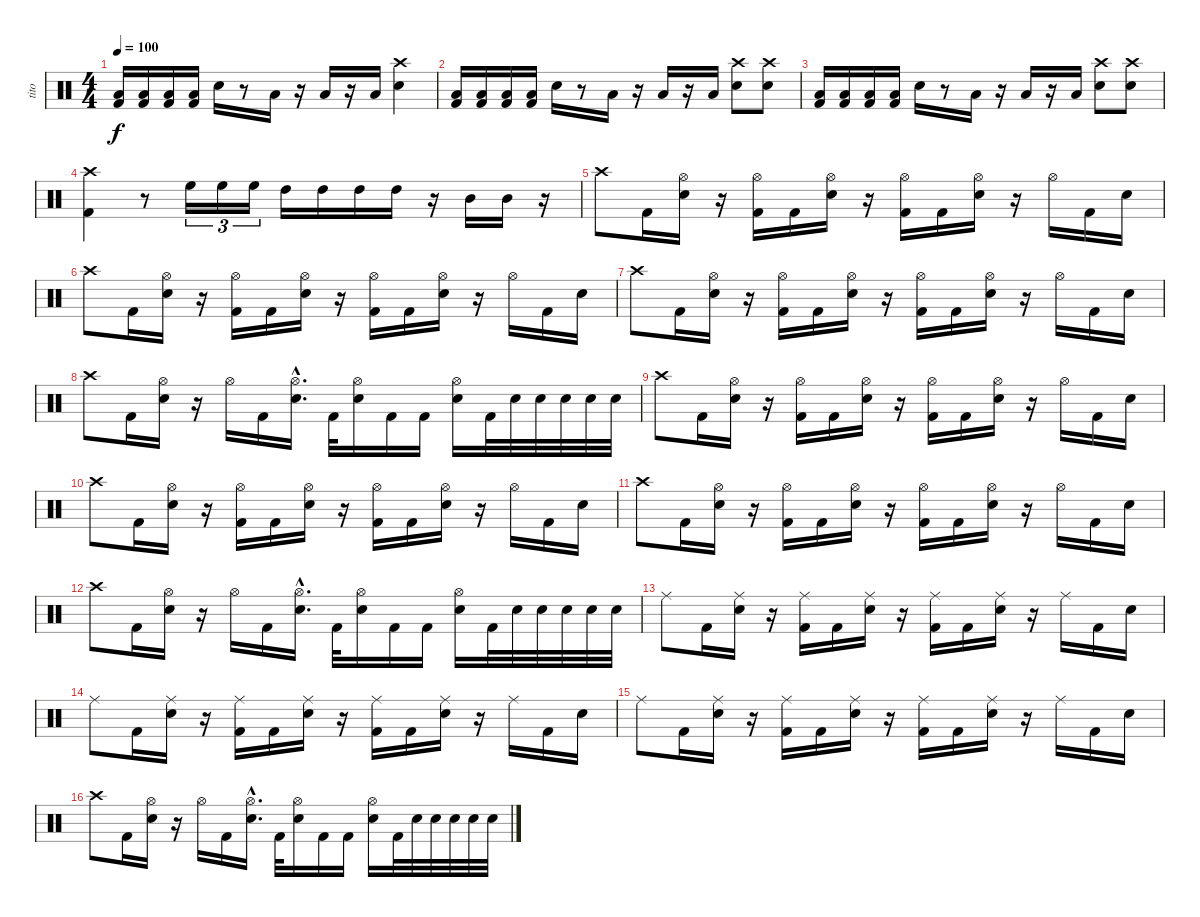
\track ("tito" "tito") {instrument percussion}
\staff {score}
\articulation defaults
\ts (4 4)
\tempo 100
\clef neutral
\ks c
("Kick (hit) 2" "Low Tom (hit)").16{dy f} ("Kick (hit) 2" "Low Tom (hit)").16 ("Kick (hit) 2" "Low Tom (hit)").16 ("Kick (hit) 2" "Low Tom (hit)").16 "Snare (hit) 2".16 r.8 "Low Tom (hit)".16 r.16 "Low Tom (hit)".16 r.16 "Low Tom (hit)".16 ("Crash high (hit)" "Snare (hit) 2").4 |
("Kick (hit) 2" "Low Tom (hit)").16 ("Kick (hit) 2" "Low Tom (hit)").16 ("Kick (hit) 2" "Low Tom (hit)").16 ("Kick (hit) 2" "Low Tom (hit)").16 "Snare (hit) 2".16 r.8 "Low Tom (hit)".16 r.16 "Low Tom (hit)".16 r.16 "Low Tom (hit)".16 ("Crash high (hit)" "Snare (hit) 2").8 ("Crash high (hit)" "Snare (hit) 2").8 |
("Kick (hit) 2" "Low Tom (hit)").16 ("Kick (hit) 2" "Low Tom (hit)").16 ("Kick (hit) 2" "Low Tom (hit)").16 ("Kick (hit) 2" "Low Tom (hit)").16 "Snare (hit) 2".16 r.8 "Low Tom (hit)".16 r.16 "Low Tom (hit)".16 r.16 "Low Tom (hit)".16 ("Crash high (hit)" "Snare (hit) 2").8 ("Crash high (hit)" "Snare (hit) 2").8 |
("Crash high (hit)" "Kick (hit) 2").4 r.8 "High Floor Tom (hit)".16{tu (3 2)} "High Floor Tom (hit)".16{tu (3 2)} "High Floor Tom (hit)".16{tu (3 2)} "High Tom (hit)".16 "High Tom (hit)".16 "High Tom (hit)".16 "High Tom (hit)".16 r.16 "Mid Tom (hit)".16 "Mid Tom (hit)".16 r.16 |
"Crash high (hit)".8 "Kick (hit) 2".16 ("Hi-Hat (open)" "Snare (hit) 2").16 r.16 ("Hi-Hat (open)" "Kick (hit) 2").16 "Kick (hit) 2".16 ("Hi-Hat (open)" "Snare (hit) 2").16 r.16 ("Hi-Hat (open)" "Kick (hit) 2").16 "Kick (hit) 2".16 ("Hi-Hat (open)" "Snare (hit) 2").16 r.16 "Hi-Hat (open)".16 "Kick (hit) 2".16 "Snare (hit) 2".16 |
"Crash high (hit)".8 "Kick (hit) 2".16 ("Hi-Hat (open)" "Snare (hit) 2").16 r.16 ("Hi-Hat (open)" "Kick (hit) 2").16 "Kick (hit) 2".16 ("Hi-Hat (open)" "Snare (hit) 2").16 r.16 ("Hi-Hat (open)" "Kick (hit) 2").16 "Kick (hit) 2".16 ("Hi-Hat (open)" "Snare (hit) 2").16 r.16 "Hi-Hat (open)".16 "Kick (hit) 2".16 "Snare (hit) 2".16 |
"Crash high (hit)".8 "Kick (hit) 2".16 ("Hi-Hat (open)" "Snare (hit) 2").16 r.16 ("Hi-Hat (open)" "Kick (hit) 2").16 "Kick (hit) 2".16 ("Hi-Hat (open)" "Snare (hit) 2").16 r.16 ("Hi-Hat (open)" "Kick (hit) 2").16 "Kick (hit) 2".16 ("Hi-Hat (open)" "Snare (hit) 2").16 r.16 "Hi-Hat (open)".16 "Kick (hit) 2".16 "Snare (hit) 2".16 |
"Crash high (hit)".8 "Kick (hit) 2".16 ("Hi-Hat (open)" "Snare (hit) 2").16 r.16 "Hi-Hat (open)".16 "Kick (hit) 2".16 ("Hi-Hat (open)"{hac} "Snare (hit) 2"{hac}).16{d} "Kick (hit) 2".32 ("Hi-Hat (open)" "Snare (hit) 2").16 "Kick (hit) 2".16 "Kick (hit) 2".16 ("Hi-Hat (open)" "Snare (hit) 2").16 "Kick (hit) 2".32 "Snare (hit) 2".32 "Snare (hit) 2".32 "Snare (hit) 2".32 "Snare (hit) 2".32 "Snare (hit) 2".32 |
"Crash high (hit)".8 "Kick (hit) 2".16 ("Hi-Hat (open)" "Snare (hit) 2").16 r.16 ("Hi-Hat (open)" "Kick (hit) 2").16 "Kick (hit) 2".16 ("Hi-Hat (open)" "Snare (hit) 2").16 r.16 ("Hi-Hat (open)" "Kick (hit) 2").16 "Kick (hit) 2".16 ("Hi-Hat (open)" "Snare (hit) 2").16 r.16 "Hi-Hat (open)".16 "Kick (hit) 2".16 "Snare (hit) 2".16 |
"Crash high (hit)".8 "Kick (hit) 2".16 ("Hi-Hat (open)" "Snare (hit) 2").16 r.16 ("Hi-Hat (open)" "Kick (hit) 2").16 "Kick (hit) 2".16 ("Hi-Hat (open)" "Snare (hit) 2").16 r.16 ("Hi-Hat (open)" "Kick (hit) 2").16 "Kick (hit) 2".16 ("Hi-Hat (open)" "Snare (hit) 2").16 r.16 "Hi-Hat (open)".16 "Kick (hit) 2".16 "Snare (hit) 2".16 |
"Crash high (hit)".8 "Kick (hit) 2".16 ("Hi-Hat (open)" "Snare (hit) 2").16 r.16 ("Hi-Hat (open)" "Kick (hit) 2").16 "Kick (hit) 2".16 ("Hi-Hat (open)" "Snare (hit) 2").16 r.16 ("Hi-Hat (open)" "Kick (hit) 2").16 "Kick (hit) 2".16 ("Hi-Hat (open)" "Snare (hit) 2").16 r.16 "Hi-Hat (open)".16 "Kick (hit) 2".16 "Snare (hit) 2".16 |
"Crash high (hit)".8 "Kick (hit) 2".16 ("Hi-Hat (open)" "Snare (hit) 2").16 r.16 "Hi-Hat (open)".16 "Kick (hit) 2".16 ("Hi-Hat (open)"{hac} "Snare (hit) 2"{hac}).16{d} "Kick (hit) 2".32 ("Hi-Hat (open)" "Snare (hit) 2").16 "Kick (hit) 2".16 "Kick (hit) 2".16 ("Hi-Hat (open)" "Snare (hit) 2").16 "Kick (hit) 2".32 "Snare (hit) 2".32 "Snare (hit) 2".32 "Snare (hit) 2".32 "Snare (hit) 2".32 "Snare (hit) 2".32 |
"Ride (middle)".8 "Kick (hit) 2".16 ("Ride (middle)" "Snare (hit) 2").16 r.16 ("Ride (middle)" "Kick (hit) 2").16 "Kick (hit) 2".16 ("Ride (middle)" "Snare (hit) 2").16 r.16 ("Ride (middle)" "Kick (hit) 2").16 "Kick (hit) 2".16 ("Ride (middle)" "Snare (hit) 2").16 r.16 "Ride (middle)".16 "Kick (hit) 2".16 "Snare (hit) 2".16 |
"Ride (middle)".8 "Kick (hit) 2".16 ("Ride (middle)" "Snare (hit) 2").16 r.16 ("Ride (middle)" "Kick (hit) 2").16 "Kick (hit) 2".16 ("Ride (middle)" "Snare (hit) 2").16 r.16 ("Ride (middle)" "Kick (hit) 2").16 "Kick (hit) 2".16 ("Ride (middle)" "Snare (hit) 2").16 r.16 "Ride (middle)".16 "Kick (hit) 2".16 "Snare (hit) 2".16 |
"Ride (middle)".8 "Kick (hit) 2".16 ("Ride (middle)" "Snare (hit) 2").16 r.16 ("Ride (middle)" "Kick (hit) 2").16 "Kick (hit) 2".16 ("Ride (middle)" "Snare (hit) 2").16 r.16 ("Ride (middle)" "Kick (hit) 2").16 "Kick (hit) 2".16 ("Ride (middle)" "Snare (hit) 2").16 r.16 "Ride (middle)".16 "Kick (hit) 2".16 "Snare (hit) 2".16 |
"Crash high (hit)".8 "Kick (hit) 2".16 ("Hi-Hat (open)" "Snare (hit) 2").16 r.16 "Hi-Hat (open)".16 "Kick (hit) 2".16 ("Hi-Hat (open)"{hac} "Snare (hit) 2"{hac}).16{d} "Kick (hit) 2".32 ("Hi-Hat (open)" "Snare (hit) 2").16 "Kick (hit) 2".16 "Kick (hit) 2".16 ("Hi-Hat (open)" "Snare (hit) 2").16 "Kick (hit) 2".32 "Snare (hit) 2".32 "Snare (hit) 2".32 "Snare (hit) 2".32 "Snare (hit) 2".32 "Snare (hit) 2".32
